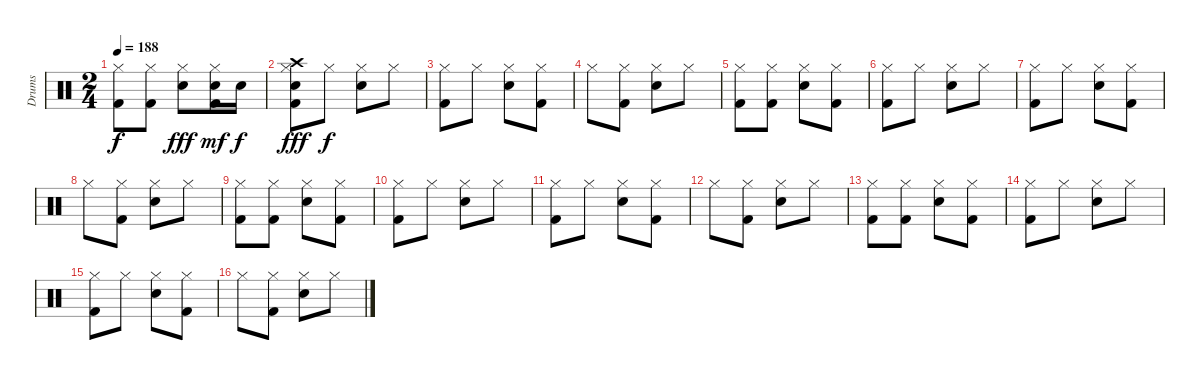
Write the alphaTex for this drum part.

\track ("Drums" "Drums") {instrument percussion}
\staff {score}
\articulation defaults
\ts (2 4)
\tempo 188
\clef neutral
\ks c
("Hi-Hat (closed)" "Kick (hit) 2").8{dy f} ("Hi-Hat (closed)" "Kick (hit) 2").8 ("Hi-Hat (closed)" "Snare (hit) 2").8{dy fff} ("Hi-Hat (closed)" "Snare (hit) 2" "Kick (hit) 2").16{dy mf} "Snare (hit) 2".16{dy f} |
("Crash high (hit)" "Hi-Hat (closed)" "Snare (hit) 2" "Kick (hit) 2").8{dy fff} "Hi-Hat (closed)".8{dy f} ("Hi-Hat (closed)" "Snare (hit) 2").8 "Hi-Hat (closed)".8 |
("Hi-Hat (closed)" "Kick (hit) 2").8 "Hi-Hat (closed)".8 ("Hi-Hat (closed)" "Snare (hit) 2").8 ("Hi-Hat (closed)" "Kick (hit) 2").8 |
"Hi-Hat (closed)".8 ("Hi-Hat (closed)" "Kick (hit) 2").8 ("Hi-Hat (closed)" "Snare (hit) 2").8 "Hi-Hat (closed)".8 |
("Hi-Hat (closed)" "Kick (hit) 2").8 ("Hi-Hat (closed)" "Kick (hit) 2").8 ("Hi-Hat (closed)" "Snare (hit) 2").8 ("Hi-Hat (closed)" "Kick (hit) 2").8 |
("Hi-Hat (closed)" "Kick (hit) 2").8 "Hi-Hat (closed)".8 ("Hi-Hat (closed)" "Snare (hit) 2").8 "Hi-Hat (closed)".8 |
("Hi-Hat (closed)" "Kick (hit) 2").8 "Hi-Hat (closed)".8 ("Hi-Hat (closed)" "Snare (hit) 2").8 ("Hi-Hat (closed)" "Kick (hit) 2").8 |
"Hi-Hat (closed)".8 ("Hi-Hat (closed)" "Kick (hit) 2").8 ("Hi-Hat (closed)" "Snare (hit) 2").8 "Hi-Hat (closed)".8 |
("Hi-Hat (closed)" "Kick (hit) 2").8 ("Hi-Hat (closed)" "Kick (hit) 2").8 ("Hi-Hat (closed)" "Snare (hit) 2").8 ("Hi-Hat (closed)" "Kick (hit) 2").8 |
("Hi-Hat (closed)" "Kick (hit) 2").8 "Hi-Hat (closed)".8 ("Hi-Hat (closed)" "Snare (hit) 2").8 "Hi-Hat (closed)".8 |
("Hi-Hat (closed)" "Kick (hit) 2").8 "Hi-Hat (closed)".8 ("Hi-Hat (closed)" "Snare (hit) 2").8 ("Hi-Hat (closed)" "Kick (hit) 2").8 |
"Hi-Hat (closed)".8 ("Hi-Hat (closed)" "Kick (hit) 2").8 ("Hi-Hat (closed)" "Snare (hit) 2").8 "Hi-Hat (closed)".8 |
("Hi-Hat (closed)" "Kick (hit) 2").8 ("Hi-Hat (closed)" "Kick (hit) 2").8 ("Hi-Hat (closed)" "Snare (hit) 2").8 ("Hi-Hat (closed)" "Kick (hit) 2").8 |
("Hi-Hat (closed)" "Kick (hit) 2").8 "Hi-Hat (closed)".8 ("Hi-Hat (closed)" "Snare (hit) 2").8 "Hi-Hat (closed)".8 |
("Hi-Hat (closed)" "Kick (hit) 2").8 "Hi-Hat (closed)".8 ("Hi-Hat (closed)" "Snare (hit) 2").8 ("Hi-Hat (closed)" "Kick (hit) 2").8 |
"Hi-Hat (closed)".8 ("Hi-Hat (closed)" "Kick (hit) 2").8 ("Hi-Hat (closed)" "Snare (hit) 2").8 "Hi-Hat (closed)".8
